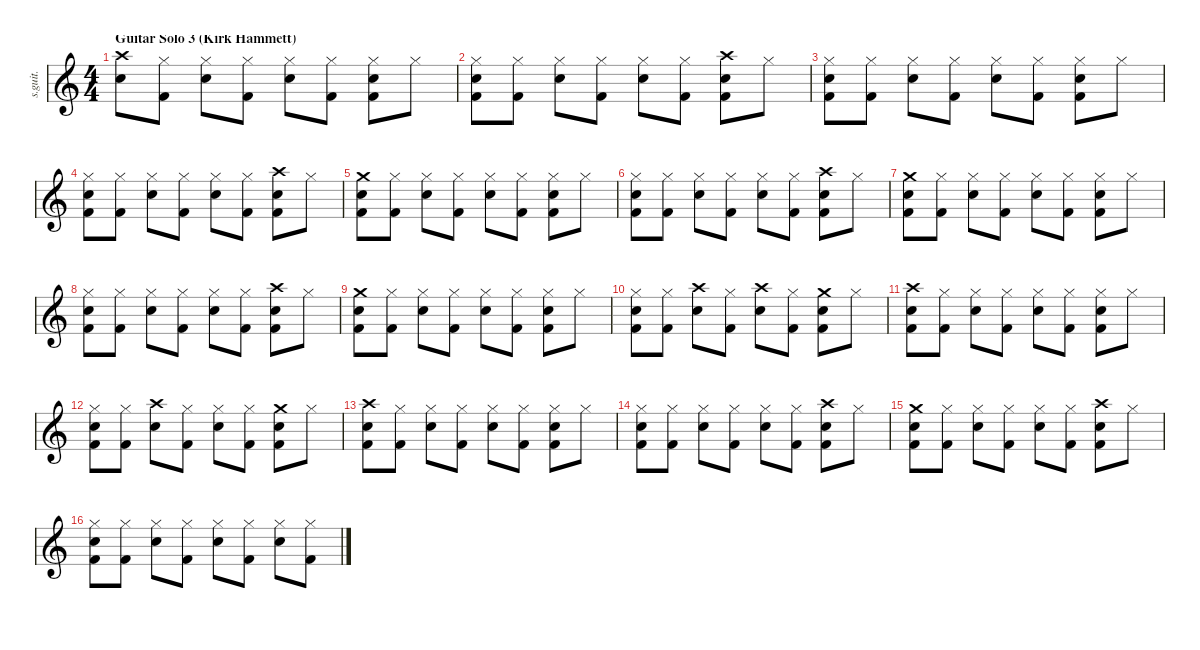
\defaultSystemsLayout 4
\hideDynamics
\bracketExtendMode nobrackets
\track ("Drumkit" "s.guit.") {instrument percussion}
\staff {score}
\articulation defaults
\ts (4 4)
\beaming (8 2 2 2 2)
\section ("" "Guitar Solo 3 (Kirk Hammett)")
\tempo (130 hide)
\clef g2
\ks c
("Crash high (hit)" "Snare (hit) 2").8{lyrics (0 "") lyrics (1 "") lyrics (2 "") lyrics (3 "") lyrics (4 "") dy f} ("Hi-Hat (closed)" "Kick (hit) 2").8{lyrics (0 "") lyrics (1 "") lyrics (2 "") lyrics (3 "") lyrics (4 "")} ("Hi-Hat (closed)" "Snare (hit) 2").8{lyrics (0 "") lyrics (1 "") lyrics (2 "") lyrics (3 "") lyrics (4 "")} ("Hi-Hat (closed)" "Kick (hit) 2").8{lyrics (0 "") lyrics (1 "") lyrics (2 "") lyrics (3 "") lyrics (4 "")} ("Hi-Hat (closed)" "Snare (hit) 2").8{lyrics (0 "") lyrics (1 "") lyrics (2 "") lyrics (3 "") lyrics (4 "")} ("Hi-Hat (closed)" "Kick (hit) 2").8{lyrics (0 "") lyrics (1 "") lyrics (2 "") lyrics (3 "") lyrics (4 "")} ("Hi-Hat (closed)" "Snare (hit) 2" "Kick (hit) 2").8{lyrics (0 "") lyrics (1 "") lyrics (2 "") lyrics (3 "") lyrics (4 "")} "Hi-Hat (closed)".8{lyrics (0 "") lyrics (1 "") lyrics (2 "") lyrics (3 "") lyrics (4 "")} |
("Hi-Hat (closed)" "Snare (hit) 2" "Kick (hit) 2").8{lyrics (0 "") lyrics (1 "") lyrics (2 "") lyrics (3 "") lyrics (4 "")} ("Hi-Hat (closed)" "Kick (hit) 2").8{lyrics (0 "") lyrics (1 "") lyrics (2 "") lyrics (3 "") lyrics (4 "")} ("Hi-Hat (closed)" "Snare (hit) 2").8{lyrics (0 "") lyrics (1 "") lyrics (2 "") lyrics (3 "") lyrics (4 "")} ("Hi-Hat (closed)" "Kick (hit) 2").8{lyrics (0 "") lyrics (1 "") lyrics (2 "") lyrics (3 "") lyrics (4 "")} ("Hi-Hat (closed)" "Snare (hit) 2").8{lyrics (0 "") lyrics (1 "") lyrics (2 "") lyrics (3 "") lyrics (4 "")} ("Hi-Hat (closed)" "Kick (hit) 2").8{lyrics (0 "") lyrics (1 "") lyrics (2 "") lyrics (3 "") lyrics (4 "")} ("Crash high (hit)" "Snare (hit) 2" "Kick (hit) 2").8{lyrics (0 "") lyrics (1 "") lyrics (2 "") lyrics (3 "") lyrics (4 "")} "Hi-Hat (closed)".8{lyrics (0 "") lyrics (1 "") lyrics (2 "") lyrics (3 "") lyrics (4 "")} |
("Hi-Hat (closed)" "Snare (hit) 2" "Kick (hit) 2").8{lyrics (0 "") lyrics (1 "") lyrics (2 "") lyrics (3 "") lyrics (4 "")} ("Hi-Hat (closed)" "Kick (hit) 2").8{lyrics (0 "") lyrics (1 "") lyrics (2 "") lyrics (3 "") lyrics (4 "")} ("Hi-Hat (closed)" "Snare (hit) 2").8{lyrics (0 "") lyrics (1 "") lyrics (2 "") lyrics (3 "") lyrics (4 "")} ("Hi-Hat (closed)" "Kick (hit) 2").8{lyrics (0 "") lyrics (1 "") lyrics (2 "") lyrics (3 "") lyrics (4 "")} ("Hi-Hat (closed)" "Snare (hit) 2").8{lyrics (0 "") lyrics (1 "") lyrics (2 "") lyrics (3 "") lyrics (4 "")} ("Hi-Hat (closed)" "Kick (hit) 2").8{lyrics (0 "") lyrics (1 "") lyrics (2 "") lyrics (3 "") lyrics (4 "")} ("Hi-Hat (closed)" "Snare (hit) 2" "Kick (hit) 2").8{lyrics (0 "") lyrics (1 "") lyrics (2 "") lyrics (3 "") lyrics (4 "")} "Hi-Hat (closed)".8{lyrics (0 "") lyrics (1 "") lyrics (2 "") lyrics (3 "") lyrics (4 "")} |
("Hi-Hat (closed)" "Snare (hit) 2" "Kick (hit) 2").8{lyrics (0 "") lyrics (1 "") lyrics (2 "") lyrics (3 "") lyrics (4 "")} ("Hi-Hat (closed)" "Kick (hit) 2").8{lyrics (0 "") lyrics (1 "") lyrics (2 "") lyrics (3 "") lyrics (4 "")} ("Hi-Hat (closed)" "Snare (hit) 2").8{lyrics (0 "") lyrics (1 "") lyrics (2 "") lyrics (3 "") lyrics (4 "")} ("Hi-Hat (closed)" "Kick (hit) 2").8{lyrics (0 "") lyrics (1 "") lyrics (2 "") lyrics (3 "") lyrics (4 "")} ("Hi-Hat (closed)" "Snare (hit) 2").8{lyrics (0 "") lyrics (1 "") lyrics (2 "") lyrics (3 "") lyrics (4 "")} ("Hi-Hat (closed)" "Kick (hit) 2").8{lyrics (0 "") lyrics (1 "") lyrics (2 "") lyrics (3 "") lyrics (4 "")} ("Crash high (hit)" "Snare (hit) 2" "Kick (hit) 2").8{lyrics (0 "") lyrics (1 "") lyrics (2 "") lyrics (3 "") lyrics (4 "")} "Hi-Hat (closed)".8{lyrics (0 "") lyrics (1 "") lyrics (2 "") lyrics (3 "") lyrics (4 "")} |
("Crash medium (hit)" "Snare (hit) 2" "Kick (hit) 2").8{lyrics (0 "") lyrics (1 "") lyrics (2 "") lyrics (3 "") lyrics (4 "")} ("Hi-Hat (closed)" "Kick (hit) 2").8{lyrics (0 "") lyrics (1 "") lyrics (2 "") lyrics (3 "") lyrics (4 "")} ("Hi-Hat (closed)" "Snare (hit) 2").8{lyrics (0 "") lyrics (1 "") lyrics (2 "") lyrics (3 "") lyrics (4 "")} ("Hi-Hat (closed)" "Kick (hit) 2").8{lyrics (0 "") lyrics (1 "") lyrics (2 "") lyrics (3 "") lyrics (4 "")} ("Hi-Hat (closed)" "Snare (hit) 2").8{lyrics (0 "") lyrics (1 "") lyrics (2 "") lyrics (3 "") lyrics (4 "")} ("Hi-Hat (closed)" "Kick (hit) 2").8{lyrics (0 "") lyrics (1 "") lyrics (2 "") lyrics (3 "") lyrics (4 "")} ("Hi-Hat (closed)" "Snare (hit) 2" "Kick (hit) 2").8{lyrics (0 "") lyrics (1 "") lyrics (2 "") lyrics (3 "") lyrics (4 "")} "Hi-Hat (closed)".8{lyrics (0 "") lyrics (1 "") lyrics (2 "") lyrics (3 "") lyrics (4 "")} |
("Hi-Hat (closed)" "Snare (hit) 2" "Kick (hit) 2").8{lyrics (0 "") lyrics (1 "") lyrics (2 "") lyrics (3 "") lyrics (4 "")} ("Hi-Hat (closed)" "Kick (hit) 2").8{lyrics (0 "") lyrics (1 "") lyrics (2 "") lyrics (3 "") lyrics (4 "")} ("Hi-Hat (closed)" "Snare (hit) 2").8{lyrics (0 "") lyrics (1 "") lyrics (2 "") lyrics (3 "") lyrics (4 "")} ("Hi-Hat (closed)" "Kick (hit) 2").8{lyrics (0 "") lyrics (1 "") lyrics (2 "") lyrics (3 "") lyrics (4 "")} ("Hi-Hat (closed)" "Snare (hit) 2").8{lyrics (0 "") lyrics (1 "") lyrics (2 "") lyrics (3 "") lyrics (4 "")} ("Hi-Hat (closed)" "Kick (hit) 2").8{lyrics (0 "") lyrics (1 "") lyrics (2 "") lyrics (3 "") lyrics (4 "")} ("Crash high (hit)" "Snare (hit) 2" "Kick (hit) 2").8{lyrics (0 "") lyrics (1 "") lyrics (2 "") lyrics (3 "") lyrics (4 "")} "Hi-Hat (closed)".8{lyrics (0 "") lyrics (1 "") lyrics (2 "") lyrics (3 "") lyrics (4 "")} |
("Crash medium (hit)" "Snare (hit) 2" "Kick (hit) 2").8{lyrics (0 "") lyrics (1 "") lyrics (2 "") lyrics (3 "") lyrics (4 "")} ("Hi-Hat (closed)" "Kick (hit) 2").8{lyrics (0 "") lyrics (1 "") lyrics (2 "") lyrics (3 "") lyrics (4 "")} ("Hi-Hat (closed)" "Snare (hit) 2").8{lyrics (0 "") lyrics (1 "") lyrics (2 "") lyrics (3 "") lyrics (4 "")} ("Hi-Hat (closed)" "Kick (hit) 2").8{lyrics (0 "") lyrics (1 "") lyrics (2 "") lyrics (3 "") lyrics (4 "")} ("Hi-Hat (closed)" "Snare (hit) 2").8{lyrics (0 "") lyrics (1 "") lyrics (2 "") lyrics (3 "") lyrics (4 "")} ("Hi-Hat (closed)" "Kick (hit) 2").8{lyrics (0 "") lyrics (1 "") lyrics (2 "") lyrics (3 "") lyrics (4 "")} ("Hi-Hat (closed)" "Snare (hit) 2" "Kick (hit) 2").8{lyrics (0 "") lyrics (1 "") lyrics (2 "") lyrics (3 "") lyrics (4 "")} "Hi-Hat (closed)".8{lyrics (0 "") lyrics (1 "") lyrics (2 "") lyrics (3 "") lyrics (4 "")} |
("Hi-Hat (closed)" "Snare (hit) 2" "Kick (hit) 2").8{lyrics (0 "") lyrics (1 "") lyrics (2 "") lyrics (3 "") lyrics (4 "")} ("Hi-Hat (closed)" "Kick (hit) 2").8{lyrics (0 "") lyrics (1 "") lyrics (2 "") lyrics (3 "") lyrics (4 "")} ("Hi-Hat (closed)" "Snare (hit) 2").8{lyrics (0 "") lyrics (1 "") lyrics (2 "") lyrics (3 "") lyrics (4 "")} ("Hi-Hat (closed)" "Kick (hit) 2").8{lyrics (0 "") lyrics (1 "") lyrics (2 "") lyrics (3 "") lyrics (4 "")} ("Hi-Hat (closed)" "Snare (hit) 2").8{lyrics (0 "") lyrics (1 "") lyrics (2 "") lyrics (3 "") lyrics (4 "")} ("Hi-Hat (closed)" "Kick (hit) 2").8{lyrics (0 "") lyrics (1 "") lyrics (2 "") lyrics (3 "") lyrics (4 "")} ("Crash high (hit)" "Snare (hit) 2" "Kick (hit) 2").8{lyrics (0 "") lyrics (1 "") lyrics (2 "") lyrics (3 "") lyrics (4 "")} "Hi-Hat (closed)".8{lyrics (0 "") lyrics (1 "") lyrics (2 "") lyrics (3 "") lyrics (4 "")} |
("Crash medium (hit)" "Snare (hit) 2" "Kick (hit) 2").8{lyrics (0 "") lyrics (1 "") lyrics (2 "") lyrics (3 "") lyrics (4 "")} ("Hi-Hat (closed)" "Kick (hit) 2").8{lyrics (0 "") lyrics (1 "") lyrics (2 "") lyrics (3 "") lyrics (4 "")} ("Hi-Hat (closed)" "Snare (hit) 2").8{lyrics (0 "") lyrics (1 "") lyrics (2 "") lyrics (3 "") lyrics (4 "")} ("Hi-Hat (closed)" "Kick (hit) 2").8{lyrics (0 "") lyrics (1 "") lyrics (2 "") lyrics (3 "") lyrics (4 "")} ("Hi-Hat (closed)" "Snare (hit) 2").8{lyrics (0 "") lyrics (1 "") lyrics (2 "") lyrics (3 "") lyrics (4 "")} ("Hi-Hat (closed)" "Kick (hit) 2").8{lyrics (0 "") lyrics (1 "") lyrics (2 "") lyrics (3 "") lyrics (4 "")} ("Hi-Hat (closed)" "Snare (hit) 2" "Kick (hit) 2").8{lyrics (0 "") lyrics (1 "") lyrics (2 "") lyrics (3 "") lyrics (4 "")} "Hi-Hat (closed)".8{lyrics (0 "") lyrics (1 "") lyrics (2 "") lyrics (3 "") lyrics (4 "")} |
("Hi-Hat (closed)" "Snare (hit) 2" "Kick (hit) 2").8{lyrics (0 "") lyrics (1 "") lyrics (2 "") lyrics (3 "") lyrics (4 "")} ("Hi-Hat (closed)" "Kick (hit) 2").8{lyrics (0 "") lyrics (1 "") lyrics (2 "") lyrics (3 "") lyrics (4 "")} ("Crash high (hit)" "Snare (hit) 2").8{lyrics (0 "") lyrics (1 "") lyrics (2 "") lyrics (3 "") lyrics (4 "")} ("Hi-Hat (closed)" "Kick (hit) 2").8{lyrics (0 "") lyrics (1 "") lyrics (2 "") lyrics (3 "") lyrics (4 "")} ("Crash high (hit)" "Snare (hit) 2").8{lyrics (0 "") lyrics (1 "") lyrics (2 "") lyrics (3 "") lyrics (4 "")} ("Hi-Hat (closed)" "Kick (hit) 2").8{lyrics (0 "") lyrics (1 "") lyrics (2 "") lyrics (3 "") lyrics (4 "")} ("Crash medium (hit)" "Snare (hit) 2" "Kick (hit) 2").8{lyrics (0 "") lyrics (1 "") lyrics (2 "") lyrics (3 "") lyrics (4 "")} "Hi-Hat (closed)".8{lyrics (0 "") lyrics (1 "") lyrics (2 "") lyrics (3 "") lyrics (4 "")} |
("Crash high (hit)" "Snare (hit) 2" "Kick (hit) 2").8{lyrics (0 "") lyrics (1 "") lyrics (2 "") lyrics (3 "") lyrics (4 "")} ("Hi-Hat (closed)" "Kick (hit) 2").8{lyrics (0 "") lyrics (1 "") lyrics (2 "") lyrics (3 "") lyrics (4 "")} ("Hi-Hat (closed)" "Snare (hit) 2").8{lyrics (0 "") lyrics (1 "") lyrics (2 "") lyrics (3 "") lyrics (4 "")} ("Hi-Hat (closed)" "Kick (hit) 2").8{lyrics (0 "") lyrics (1 "") lyrics (2 "") lyrics (3 "") lyrics (4 "")} ("Hi-Hat (closed)" "Snare (hit) 2").8{lyrics (0 "") lyrics (1 "") lyrics (2 "") lyrics (3 "") lyrics (4 "")} ("Hi-Hat (closed)" "Kick (hit) 2").8{lyrics (0 "") lyrics (1 "") lyrics (2 "") lyrics (3 "") lyrics (4 "")} ("Hi-Hat (closed)" "Snare (hit) 2" "Kick (hit) 2").8{lyrics (0 "") lyrics (1 "") lyrics (2 "") lyrics (3 "") lyrics (4 "")} "Hi-Hat (closed)".8{lyrics (0 "") lyrics (1 "") lyrics (2 "") lyrics (3 "") lyrics (4 "")} |
("Hi-Hat (closed)" "Snare (hit) 2" "Kick (hit) 2").8{lyrics (0 "") lyrics (1 "") lyrics (2 "") lyrics (3 "") lyrics (4 "")} ("Hi-Hat (closed)" "Kick (hit) 2").8{lyrics (0 "") lyrics (1 "") lyrics (2 "") lyrics (3 "") lyrics (4 "")} ("Crash high (hit)" "Snare (hit) 2").8{lyrics (0 "") lyrics (1 "") lyrics (2 "") lyrics (3 "") lyrics (4 "")} ("Hi-Hat (closed)" "Kick (hit) 2").8{lyrics (0 "") lyrics (1 "") lyrics (2 "") lyrics (3 "") lyrics (4 "")} ("Hi-Hat (closed)" "Snare (hit) 2").8{lyrics (0 "") lyrics (1 "") lyrics (2 "") lyrics (3 "") lyrics (4 "")} ("Hi-Hat (closed)" "Kick (hit) 2").8{lyrics (0 "") lyrics (1 "") lyrics (2 "") lyrics (3 "") lyrics (4 "")} ("Crash medium (hit)" "Snare (hit) 2" "Kick (hit) 2").8{lyrics (0 "") lyrics (1 "") lyrics (2 "") lyrics (3 "") lyrics (4 "")} "Hi-Hat (closed)".8{lyrics (0 "") lyrics (1 "") lyrics (2 "") lyrics (3 "") lyrics (4 "")} |
("Crash high (hit)" "Snare (hit) 2" "Kick (hit) 2").8{lyrics (0 "") lyrics (1 "") lyrics (2 "") lyrics (3 "") lyrics (4 "")} ("Hi-Hat (closed)" "Kick (hit) 2").8{lyrics (0 "") lyrics (1 "") lyrics (2 "") lyrics (3 "") lyrics (4 "")} ("Hi-Hat (closed)" "Snare (hit) 2").8{lyrics (0 "") lyrics (1 "") lyrics (2 "") lyrics (3 "") lyrics (4 "")} ("Hi-Hat (closed)" "Kick (hit) 2").8{lyrics (0 "") lyrics (1 "") lyrics (2 "") lyrics (3 "") lyrics (4 "")} ("Hi-Hat (closed)" "Snare (hit) 2").8{lyrics (0 "") lyrics (1 "") lyrics (2 "") lyrics (3 "") lyrics (4 "")} ("Hi-Hat (closed)" "Kick (hit) 2").8{lyrics (0 "") lyrics (1 "") lyrics (2 "") lyrics (3 "") lyrics (4 "")} ("Hi-Hat (closed)" "Snare (hit) 2" "Kick (hit) 2").8{lyrics (0 "") lyrics (1 "") lyrics (2 "") lyrics (3 "") lyrics (4 "")} "Hi-Hat (closed)".8{lyrics (0 "") lyrics (1 "") lyrics (2 "") lyrics (3 "") lyrics (4 "")} |
("Hi-Hat (closed)" "Snare (hit) 2" "Kick (hit) 2").8{lyrics (0 "") lyrics (1 "") lyrics (2 "") lyrics (3 "") lyrics (4 "")} ("Hi-Hat (closed)" "Kick (hit) 2").8{lyrics (0 "") lyrics (1 "") lyrics (2 "") lyrics (3 "") lyrics (4 "")} ("Hi-Hat (closed)" "Snare (hit) 2").8{lyrics (0 "") lyrics (1 "") lyrics (2 "") lyrics (3 "") lyrics (4 "")} ("Hi-Hat (closed)" "Kick (hit) 2").8{lyrics (0 "") lyrics (1 "") lyrics (2 "") lyrics (3 "") lyrics (4 "")} ("Hi-Hat (closed)" "Snare (hit) 2").8{lyrics (0 "") lyrics (1 "") lyrics (2 "") lyrics (3 "") lyrics (4 "")} ("Hi-Hat (closed)" "Kick (hit) 2").8{lyrics (0 "") lyrics (1 "") lyrics (2 "") lyrics (3 "") lyrics (4 "")} ("Crash high (hit)" "Snare (hit) 2" "Kick (hit) 2").8{lyrics (0 "") lyrics (1 "") lyrics (2 "") lyrics (3 "") lyrics (4 "")} "Hi-Hat (closed)".8{lyrics (0 "") lyrics (1 "") lyrics (2 "") lyrics (3 "") lyrics (4 "")} |
("Crash medium (hit)" "Snare (hit) 2" "Kick (hit) 2").8{lyrics (0 "") lyrics (1 "") lyrics (2 "") lyrics (3 "") lyrics (4 "")} ("Hi-Hat (closed)" "Kick (hit) 2").8{lyrics (0 "") lyrics (1 "") lyrics (2 "") lyrics (3 "") lyrics (4 "")} ("Hi-Hat (closed)" "Snare (hit) 2").8{lyrics (0 "") lyrics (1 "") lyrics (2 "") lyrics (3 "") lyrics (4 "")} ("Hi-Hat (closed)" "Kick (hit) 2").8{lyrics (0 "") lyrics (1 "") lyrics (2 "") lyrics (3 "") lyrics (4 "")} ("Hi-Hat (closed)" "Snare (hit) 2").8{lyrics (0 "") lyrics (1 "") lyrics (2 "") lyrics (3 "") lyrics (4 "")} ("Hi-Hat (closed)" "Kick (hit) 2").8{lyrics (0 "") lyrics (1 "") lyrics (2 "") lyrics (3 "") lyrics (4 "")} ("Crash high (hit)" "Snare (hit) 2" "Kick (hit) 2").8{lyrics (0 "") lyrics (1 "") lyrics (2 "") lyrics (3 "") lyrics (4 "")} "Hi-Hat (closed)".8{lyrics (0 "") lyrics (1 "") lyrics (2 "") lyrics (3 "") lyrics (4 "")} |
("Hi-Hat (closed)" "Snare (hit) 2" "Kick (hit) 2").8{lyrics (0 "") lyrics (1 "") lyrics (2 "") lyrics (3 "") lyrics (4 "")} ("Hi-Hat (closed)" "Kick (hit) 2").8{lyrics (0 "") lyrics (1 "") lyrics (2 "") lyrics (3 "") lyrics (4 "")} ("Hi-Hat (closed)" "Snare (hit) 2").8{lyrics (0 "") lyrics (1 "") lyrics (2 "") lyrics (3 "") lyrics (4 "")} ("Hi-Hat (closed)" "Kick (hit) 2").8{lyrics (0 "") lyrics (1 "") lyrics (2 "") lyrics (3 "") lyrics (4 "")} ("Hi-Hat (closed)" "Snare (hit) 2").8{lyrics (0 "") lyrics (1 "") lyrics (2 "") lyrics (3 "") lyrics (4 "")} ("Hi-Hat (closed)" "Kick (hit) 2").8{lyrics (0 "") lyrics (1 "") lyrics (2 "") lyrics (3 "") lyrics (4 "")} ("Hi-Hat (closed)" "Snare (hit) 2").8{lyrics (0 "") lyrics (1 "") lyrics (2 "") lyrics (3 "") lyrics (4 "")} ("Hi-Hat (closed)" "Kick (hit) 2").8{lyrics (0 "") lyrics (1 "") lyrics (2 "") lyrics (3 "") lyrics (4 "")}
